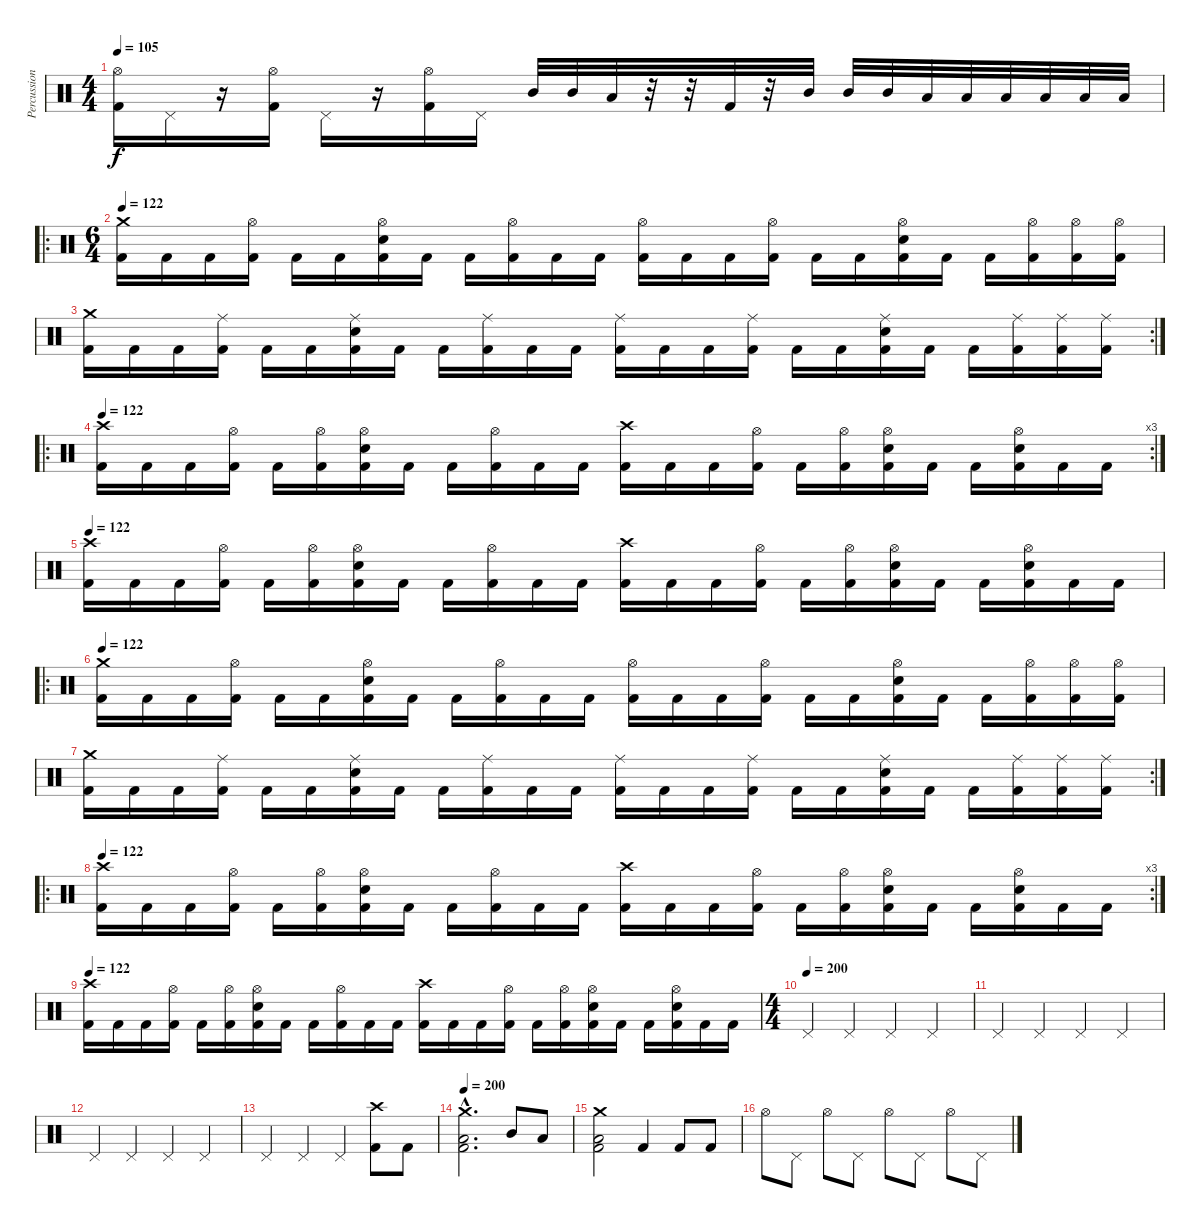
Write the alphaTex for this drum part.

\track ("Percussion" "Percussion") {instrument percussion}
\staff {score}
\articulation defaults
\ts (4 4)
\tempo 105
\clef neutral
\ks c
("Hi-Hat (open)" "Kick (hit) 2").16{dy f} "Pedal Hi-Hat (hit)".16 r.16 ("Hi-Hat (open)" "Kick (hit) 2").16 "Pedal Hi-Hat (hit)".16 r.16 ("Hi-Hat (open)" "Kick (hit) 2").16 "Pedal Hi-Hat (hit)".16 "Mid Tom (hit)".32 "Mid Tom (hit)".32 "Low Tom (hit)".32 r.32 r.32 "Kick (hit) 2".32 r.32 "Mid Tom (hit)".32 "Mid Tom (hit)".32 "Mid Tom (hit)".32 "Low Tom (hit)".32 "Low Tom (hit)".32 "Low Tom (hit)".32 "Low Floor Tom (hit)".32 "Low Floor Tom (hit)".32 "Low Floor Tom (hit)".32 |
\ro
\ts (6 4)
\tempo 122
("Crash medium (hit)" "Kick (hit) 2").16 "Kick (hit) 2".16 "Kick (hit) 2".16 ("Hi-Hat (open)" "Kick (hit) 2").16 "Kick (hit) 2".16 "Kick (hit) 2".16 ("Hi-Hat (open)" "Electric Snare (hit)" "Kick (hit) 2").16 "Kick (hit) 2".16 "Kick (hit) 2".16 ("Hi-Hat (open)" "Kick (hit) 2").16 "Kick (hit) 2".16 "Kick (hit) 2".16 ("Hi-Hat (open)" "Kick (hit) 2").16 "Kick (hit) 2".16 "Kick (hit) 2".16 ("Hi-Hat (open)" "Kick (hit) 2").16 "Kick (hit) 2".16 "Kick (hit) 2".16 ("Hi-Hat (open)" "Electric Snare (hit)" "Kick (hit) 2").16 "Kick (hit) 2".16 "Kick (hit) 2".16 ("Hi-Hat (open)" "Kick (hit) 2").16 ("Hi-Hat (open)" "Kick (hit) 2").16 ("Hi-Hat (open)" "Kick (hit) 2").16 |
\rc 2
("Crash medium (hit)" "Kick (hit) 2").16 "Kick (hit) 2".16 "Kick (hit) 2".16 ("Ride (middle)" "Kick (hit) 2").16 "Kick (hit) 2".16 "Kick (hit) 2".16 ("Ride (middle)" "Electric Snare (hit)" "Kick (hit) 2").16 "Kick (hit) 2".16 "Kick (hit) 2".16 ("Ride (middle)" "Kick (hit) 2").16 "Kick (hit) 2".16 "Kick (hit) 2".16 ("Ride (middle)" "Kick (hit) 2").16 "Kick (hit) 2".16 "Kick (hit) 2".16 ("Ride (middle)" "Kick (hit) 2").16 "Kick (hit) 2".16 "Kick (hit) 2".16 ("Ride (middle)" "Electric Snare (hit)" "Kick (hit) 2").16 "Kick (hit) 2".16 "Kick (hit) 2".16 ("Ride (middle)" "Kick (hit) 2").16 ("Ride (middle)" "Kick (hit) 2").16 ("Ride (middle)" "Kick (hit) 2").16 |
\ro
\rc 3
\tempo 122
("Crash high (hit)" "Kick (hit) 2").16 "Kick (hit) 2".16 "Kick (hit) 2".16 ("Hi-Hat (open)" "Kick (hit) 2").16 "Kick (hit) 2".16 ("Hi-Hat (open)" "Kick (hit) 2").16 ("Hi-Hat (open)" "Electric Snare (hit)" "Kick (hit) 2").16 "Kick (hit) 2".16 "Kick (hit) 2".16 ("Hi-Hat (open)" "Kick (hit) 2").16 "Kick (hit) 2".16 "Kick (hit) 2".16 ("Crash high (hit)" "Kick (hit) 2").16 "Kick (hit) 2".16 "Kick (hit) 2".16 ("Hi-Hat (open)" "Kick (hit) 2").16 "Kick (hit) 2".16 ("Hi-Hat (open)" "Kick (hit) 2").16 ("Hi-Hat (open)" "Electric Snare (hit)" "Kick (hit) 2").16 "Kick (hit) 2".16 "Kick (hit) 2".16 ("Hi-Hat (open)" "Electric Snare (hit)" "Kick (hit) 2").16 "Kick (hit) 2".16 "Kick (hit) 2".16 |
\tempo 122
("Crash high (hit)" "Kick (hit) 2").16 "Kick (hit) 2".16 "Kick (hit) 2".16 ("Hi-Hat (open)" "Kick (hit) 2").16 "Kick (hit) 2".16 ("Hi-Hat (open)" "Kick (hit) 2").16 ("Hi-Hat (open)" "Electric Snare (hit)" "Kick (hit) 2").16 "Kick (hit) 2".16 "Kick (hit) 2".16 ("Hi-Hat (open)" "Kick (hit) 2").16 "Kick (hit) 2".16 "Kick (hit) 2".16 ("Crash high (hit)" "Kick (hit) 2").16 "Kick (hit) 2".16 "Kick (hit) 2".16 ("Hi-Hat (open)" "Kick (hit) 2").16 "Kick (hit) 2".16 ("Hi-Hat (open)" "Kick (hit) 2").16 ("Hi-Hat (open)" "Electric Snare (hit)" "Kick (hit) 2").16 "Kick (hit) 2".16 "Kick (hit) 2".16 ("Hi-Hat (open)" "Electric Snare (hit)" "Kick (hit) 2").16 "Kick (hit) 2".16 "Kick (hit) 2".16 |
\ro
\tempo 122
("Crash medium (hit)" "Kick (hit) 2").16 "Kick (hit) 2".16 "Kick (hit) 2".16 ("Hi-Hat (open)" "Kick (hit) 2").16 "Kick (hit) 2".16 "Kick (hit) 2".16 ("Hi-Hat (open)" "Electric Snare (hit)" "Kick (hit) 2").16 "Kick (hit) 2".16 "Kick (hit) 2".16 ("Hi-Hat (open)" "Kick (hit) 2").16 "Kick (hit) 2".16 "Kick (hit) 2".16 ("Hi-Hat (open)" "Kick (hit) 2").16 "Kick (hit) 2".16 "Kick (hit) 2".16 ("Hi-Hat (open)" "Kick (hit) 2").16 "Kick (hit) 2".16 "Kick (hit) 2".16 ("Hi-Hat (open)" "Electric Snare (hit)" "Kick (hit) 2").16 "Kick (hit) 2".16 "Kick (hit) 2".16 ("Hi-Hat (open)" "Kick (hit) 2").16 ("Hi-Hat (open)" "Kick (hit) 2").16 ("Hi-Hat (open)" "Kick (hit) 2").16 |
\rc 2
("Crash medium (hit)" "Kick (hit) 2").16 "Kick (hit) 2".16 "Kick (hit) 2".16 ("Ride (middle)" "Kick (hit) 2").16 "Kick (hit) 2".16 "Kick (hit) 2".16 ("Ride (middle)" "Electric Snare (hit)" "Kick (hit) 2").16 "Kick (hit) 2".16 "Kick (hit) 2".16 ("Ride (middle)" "Kick (hit) 2").16 "Kick (hit) 2".16 "Kick (hit) 2".16 ("Ride (middle)" "Kick (hit) 2").16 "Kick (hit) 2".16 "Kick (hit) 2".16 ("Ride (middle)" "Kick (hit) 2").16 "Kick (hit) 2".16 "Kick (hit) 2".16 ("Ride (middle)" "Electric Snare (hit)" "Kick (hit) 2").16 "Kick (hit) 2".16 "Kick (hit) 2".16 ("Ride (middle)" "Kick (hit) 2").16 ("Ride (middle)" "Kick (hit) 2").16 ("Ride (middle)" "Kick (hit) 2").16 |
\ro
\rc 3
\tempo 122
("Crash high (hit)" "Kick (hit) 2").16 "Kick (hit) 2".16 "Kick (hit) 2".16 ("Hi-Hat (open)" "Kick (hit) 2").16 "Kick (hit) 2".16 ("Hi-Hat (open)" "Kick (hit) 2").16 ("Hi-Hat (open)" "Electric Snare (hit)" "Kick (hit) 2").16 "Kick (hit) 2".16 "Kick (hit) 2".16 ("Hi-Hat (open)" "Kick (hit) 2").16 "Kick (hit) 2".16 "Kick (hit) 2".16 ("Crash high (hit)" "Kick (hit) 2").16 "Kick (hit) 2".16 "Kick (hit) 2".16 ("Hi-Hat (open)" "Kick (hit) 2").16 "Kick (hit) 2".16 ("Hi-Hat (open)" "Kick (hit) 2").16 ("Hi-Hat (open)" "Electric Snare (hit)" "Kick (hit) 2").16 "Kick (hit) 2".16 "Kick (hit) 2".16 ("Hi-Hat (open)" "Electric Snare (hit)" "Kick (hit) 2").16 "Kick (hit) 2".16 "Kick (hit) 2".16 |
\tempo 122
("Crash high (hit)" "Kick (hit) 2").16 "Kick (hit) 2".16 "Kick (hit) 2".16 ("Hi-Hat (open)" "Kick (hit) 2").16 "Kick (hit) 2".16 ("Hi-Hat (open)" "Kick (hit) 2").16 ("Hi-Hat (open)" "Electric Snare (hit)" "Kick (hit) 2").16 "Kick (hit) 2".16 "Kick (hit) 2".16 ("Hi-Hat (open)" "Kick (hit) 2").16 "Kick (hit) 2".16 "Kick (hit) 2".16 ("Crash high (hit)" "Kick (hit) 2").16 "Kick (hit) 2".16 "Kick (hit) 2".16 ("Hi-Hat (open)" "Kick (hit) 2").16 "Kick (hit) 2".16 ("Hi-Hat (open)" "Kick (hit) 2").16 ("Hi-Hat (open)" "Electric Snare (hit)" "Kick (hit) 2").16 "Kick (hit) 2".16 "Kick (hit) 2".16 ("Hi-Hat (open)" "Electric Snare (hit)" "Kick (hit) 2").16 "Kick (hit) 2".16 "Kick (hit) 2".16 |
\ts (4 4)
\tempo (200)
"Pedal Hi-Hat (hit)".4 "Pedal Hi-Hat (hit)".4 "Pedal Hi-Hat (hit)".4 "Pedal Hi-Hat (hit)".4 |
"Pedal Hi-Hat (hit)".4 "Pedal Hi-Hat (hit)".4 "Pedal Hi-Hat (hit)".4 "Pedal Hi-Hat (hit)".4 |
"Pedal Hi-Hat (hit)".4 "Pedal Hi-Hat (hit)".4 "Pedal Hi-Hat (hit)".4 "Pedal Hi-Hat (hit)".4 |
"Pedal Hi-Hat (hit)".4 "Pedal Hi-Hat (hit)".4 "Pedal Hi-Hat (hit)".4 ("Crash high (hit)" "Kick (hit) 2").8 "Kick (hit) 2".8 |
\tempo 200
("Crash medium (hit)"{hac} "Low Floor Tom (hit)"{hac} "Kick (hit) 2"{hac}).2{d} "Mid Tom (hit)".8 "Low Tom (hit)".8 |
("Crash medium (hit)" "Low Floor Tom (hit)" "Kick (hit) 2").2 "Kick (hit) 2".4 "Kick (hit) 2".8 "Kick (hit) 2".8 |
"Hi-Hat (open)".8 "Pedal Hi-Hat (hit)".8 "Hi-Hat (open)".8 "Pedal Hi-Hat (hit)".8 "Hi-Hat (open)".8 "Pedal Hi-Hat (hit)".8 "Hi-Hat (open)".8 "Pedal Hi-Hat (hit)".8
